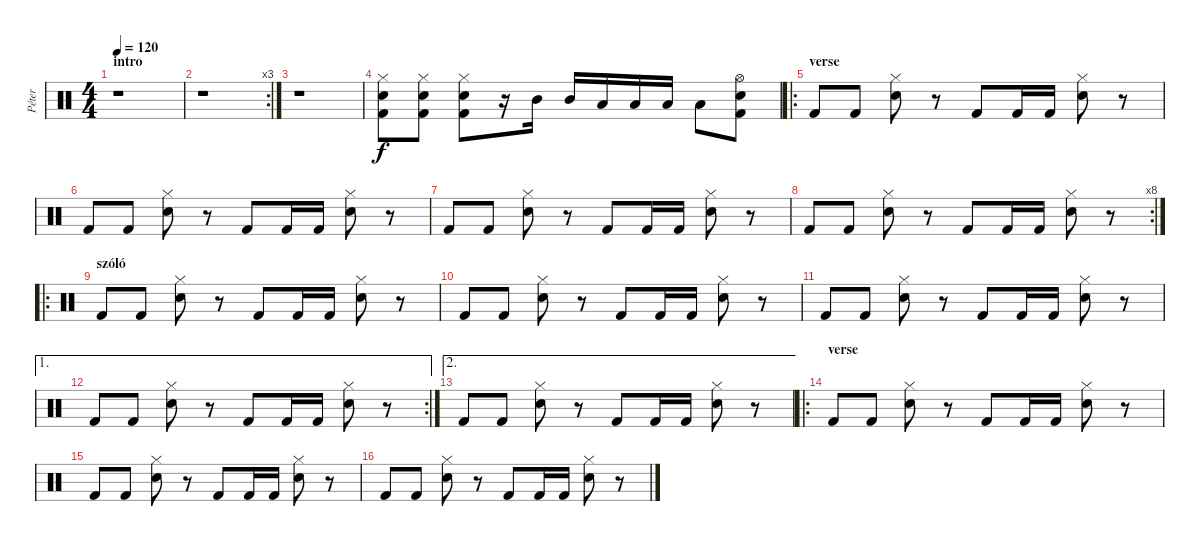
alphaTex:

\track ("Péter" "Péter") {instrument percussion}
\staff {score}
\articulation defaults
\ts (4 4)
\section ("" "intro")
\tempo 120
\clef neutral
\ks c
r.1{dy f} |
\rc 3
r.1 |
r.1 |
("Kick (hit) 2" "Electric Snare (hit)" "Hi-Hat (closed)").8 ("Kick (hit) 2" "Electric Snare (hit)" "Hi-Hat (closed)").8 ("Kick (hit) 2" "Electric Snare (hit)" "Hi-Hat (closed)").8 r.16 "Mid Tom (hit)".16 "Mid Tom (hit)".16 "Low Tom (hit)".16 "Low Tom (hit)".16 "Low Floor Tom (hit)".16 "Low Floor Tom (hit)".8 ("Kick (hit) 2" "Electric Snare (hit)" "Hi-Hat (open)").8 |
\ro
\section ("" "verse")
"Kick (hit) 2".8 "Kick (hit) 2".8 ("Electric Snare (hit)" "Hi-Hat (closed)").8 r.8 "Kick (hit) 2".8 "Kick (hit) 2".16 "Kick (hit) 2".16 ("Electric Snare (hit)" "Hi-Hat (closed)").8 r.8 |
"Kick (hit) 2".8 "Kick (hit) 2".8 ("Electric Snare (hit)" "Hi-Hat (closed)").8 r.8 "Kick (hit) 2".8 "Kick (hit) 2".16 "Kick (hit) 2".16 ("Electric Snare (hit)" "Hi-Hat (closed)").8 r.8 |
"Kick (hit) 2".8 "Kick (hit) 2".8 ("Electric Snare (hit)" "Hi-Hat (closed)").8 r.8 "Kick (hit) 2".8 "Kick (hit) 2".16 "Kick (hit) 2".16 ("Electric Snare (hit)" "Hi-Hat (closed)").8 r.8 |
\rc 8 "Kick (hit) 2".8 "Kick (hit) 2".8
("Electric Snare (hit)" "Hi-Hat (closed)").8 r.8 "Kick (hit) 2".8 "Kick (hit) 2".16 "Kick (hit) 2".16 ("Electric Snare (hit)" "Hi-Hat (closed)").8 r.8 |
\ro
\section ("" "szóló")
"Kick (hit) 2".8 "Kick (hit) 2".8 ("Electric Snare (hit)" "Hi-Hat (closed)").8 r.8 "Kick (hit) 2".8 "Kick (hit) 2".16 "Kick (hit) 2".16 ("Electric Snare (hit)" "Hi-Hat (closed)").8 r.8 |
"Kick (hit) 2".8 "Kick (hit) 2".8 ("Electric Snare (hit)" "Hi-Hat (closed)").8 r.8 "Kick (hit) 2".8 "Kick (hit) 2".16 "Kick (hit) 2".16 ("Electric Snare (hit)" "Hi-Hat (closed)").8 r.8 |
"Kick (hit) 2".8 "Kick (hit) 2".8 ("Electric Snare (hit)" "Hi-Hat (closed)").8 r.8 "Kick (hit) 2".8 "Kick (hit) 2".16 "Kick (hit) 2".16 ("Electric Snare (hit)" "Hi-Hat (closed)").8 r.8 |
\ae 1
\rc 2 "Kick (hit) 2".8 "Kick (hit) 2".8
("Electric Snare (hit)" "Hi-Hat (closed)").8 r.8 "Kick (hit) 2".8 "Kick (hit) 2".16 "Kick (hit) 2".16 ("Electric Snare (hit)" "Hi-Hat (closed)").8 r.8 |
\ae 2 "Kick (hit) 2".8 "Kick (hit) 2".8
("Electric Snare (hit)" "Hi-Hat (closed)").8 r.8 "Kick (hit) 2".8 "Kick (hit) 2".16 "Kick (hit) 2".16 ("Electric Snare (hit)" "Hi-Hat (closed)").8 r.8 |
\ro
\section ("" "verse")
"Kick (hit) 2".8 "Kick (hit) 2".8 ("Electric Snare (hit)" "Hi-Hat (closed)").8 r.8 "Kick (hit) 2".8 "Kick (hit) 2".16 "Kick (hit) 2".16 ("Electric Snare (hit)" "Hi-Hat (closed)").8 r.8 |
"Kick (hit) 2".8 "Kick (hit) 2".8 ("Electric Snare (hit)" "Hi-Hat (closed)").8 r.8 "Kick (hit) 2".8 "Kick (hit) 2".16 "Kick (hit) 2".16 ("Electric Snare (hit)" "Hi-Hat (closed)").8 r.8 |
"Kick (hit) 2".8 "Kick (hit) 2".8 ("Electric Snare (hit)" "Hi-Hat (closed)").8 r.8 "Kick (hit) 2".8 "Kick (hit) 2".16 "Kick (hit) 2".16 ("Electric Snare (hit)" "Hi-Hat (closed)").8 r.8
